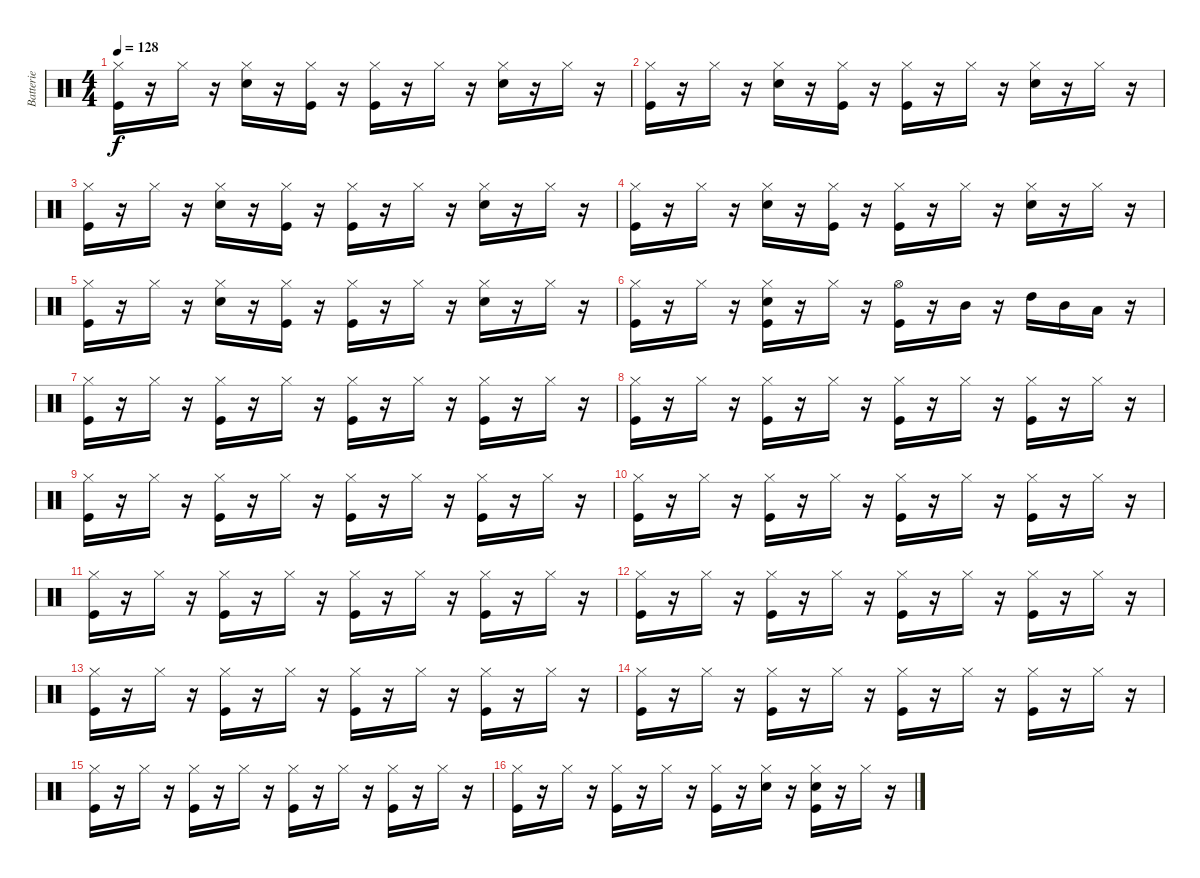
\track ("Batterie" "Batterie") {instrument percussion}
\staff {score}
\articulation defaults
\ts (4 4)
\tempo 128
\clef neutral
\ks c
("Kick (hit)" "Hi-Hat (closed)").16{dy f} r.16 "Hi-Hat (closed)".16 r.16 ("Snare (hit) 2" "Hi-Hat (closed)").16 r.16 ("Kick (hit)" "Hi-Hat (closed)").16 r.16 ("Kick (hit)" "Hi-Hat (closed)").16 r.16 "Hi-Hat (closed)".16 r.16 ("Snare (hit) 2" "Hi-Hat (closed)").16 r.16 "Hi-Hat (closed)".16 r.16 |
("Kick (hit)" "Hi-Hat (closed)").16 r.16 "Hi-Hat (closed)".16 r.16 ("Snare (hit) 2" "Hi-Hat (closed)").16 r.16 ("Kick (hit)" "Hi-Hat (closed)").16 r.16 ("Kick (hit)" "Hi-Hat (closed)").16 r.16 "Hi-Hat (closed)".16 r.16 ("Snare (hit) 2" "Hi-Hat (closed)").16 r.16 "Hi-Hat (closed)".16 r.16 |
("Kick (hit)" "Hi-Hat (closed)").16 r.16 "Hi-Hat (closed)".16 r.16 ("Snare (hit) 2" "Hi-Hat (closed)").16 r.16 ("Kick (hit)" "Hi-Hat (closed)").16 r.16 ("Kick (hit)" "Hi-Hat (closed)").16 r.16 "Hi-Hat (closed)".16 r.16 ("Snare (hit) 2" "Hi-Hat (closed)").16 r.16 "Hi-Hat (closed)".16 r.16 |
("Kick (hit)" "Hi-Hat (closed)").16 r.16 "Hi-Hat (closed)".16 r.16 ("Snare (hit) 2" "Hi-Hat (closed)").16 r.16 ("Kick (hit)" "Hi-Hat (closed)").16 r.16 ("Kick (hit)" "Hi-Hat (closed)").16 r.16 "Hi-Hat (closed)".16 r.16 ("Snare (hit) 2" "Hi-Hat (closed)").16 r.16 "Hi-Hat (closed)".16 r.16 |
("Kick (hit)" "Hi-Hat (closed)").16 r.16 "Hi-Hat (closed)".16 r.16 ("Snare (hit) 2" "Hi-Hat (closed)").16 r.16 ("Kick (hit)" "Hi-Hat (closed)").16 r.16 ("Kick (hit)" "Hi-Hat (closed)").16 r.16 "Hi-Hat (closed)".16 r.16 ("Snare (hit) 2" "Hi-Hat (closed)").16 r.16 "Hi-Hat (closed)".16 r.16 |
("Kick (hit)" "Hi-Hat (closed)").16 r.16 "Hi-Hat (closed)".16 r.16 ("Snare (hit) 2" "Kick (hit)" "Hi-Hat (closed)").16 r.16 "Hi-Hat (closed)".16 r.16 ("Kick (hit)" "Hi-Hat (open)").16 r.16 "Mid Tom (hit)".16 r.16 "High Tom (hit)".16 "Mid Tom (hit)".16 "Low Tom (hit)".16 r.16 |
("Kick (hit)" "Hi-Hat (closed)").16 r.16 "Hi-Hat (closed)".16 r.16 ("Kick (hit)" "Hi-Hat (closed)").16 r.16 "Hi-Hat (closed)".16 r.16 ("Kick (hit)" "Hi-Hat (closed)").16 r.16 "Hi-Hat (closed)".16 r.16 ("Kick (hit)" "Hi-Hat (closed)").16 r.16 "Hi-Hat (closed)".16 r.16 |
("Kick (hit)" "Hi-Hat (closed)").16 r.16 "Hi-Hat (closed)".16 r.16 ("Kick (hit)" "Hi-Hat (closed)").16 r.16 "Hi-Hat (closed)".16 r.16 ("Kick (hit)" "Hi-Hat (closed)").16 r.16 "Hi-Hat (closed)".16 r.16 ("Kick (hit)" "Hi-Hat (closed)").16 r.16 "Hi-Hat (closed)".16 r.16 |
("Kick (hit)" "Hi-Hat (closed)").16 r.16 "Hi-Hat (closed)".16 r.16 ("Kick (hit)" "Hi-Hat (closed)").16 r.16 "Hi-Hat (closed)".16 r.16 ("Kick (hit)" "Hi-Hat (closed)").16 r.16 "Hi-Hat (closed)".16 r.16 ("Kick (hit)" "Hi-Hat (closed)").16 r.16 "Hi-Hat (closed)".16 r.16 |
("Kick (hit)" "Hi-Hat (closed)").16 r.16 "Hi-Hat (closed)".16 r.16 ("Kick (hit)" "Hi-Hat (closed)").16 r.16 "Hi-Hat (closed)".16 r.16 ("Kick (hit)" "Hi-Hat (closed)").16 r.16 "Hi-Hat (closed)".16 r.16 ("Kick (hit)" "Hi-Hat (closed)").16 r.16 "Hi-Hat (closed)".16 r.16 |
("Kick (hit)" "Hi-Hat (closed)").16 r.16 "Hi-Hat (closed)".16 r.16 ("Kick (hit)" "Hi-Hat (closed)").16 r.16 "Hi-Hat (closed)".16 r.16 ("Kick (hit)" "Hi-Hat (closed)").16 r.16 "Hi-Hat (closed)".16 r.16 ("Kick (hit)" "Hi-Hat (closed)").16 r.16 "Hi-Hat (closed)".16 r.16 |
("Kick (hit)" "Hi-Hat (closed)").16 r.16 "Hi-Hat (closed)".16 r.16 ("Kick (hit)" "Hi-Hat (closed)").16 r.16 "Hi-Hat (closed)".16 r.16 ("Kick (hit)" "Hi-Hat (closed)").16 r.16 "Hi-Hat (closed)".16 r.16 ("Kick (hit)" "Hi-Hat (closed)").16 r.16 "Hi-Hat (closed)".16 r.16 |
("Kick (hit)" "Hi-Hat (closed)").16 r.16 "Hi-Hat (closed)".16 r.16 ("Kick (hit)" "Hi-Hat (closed)").16 r.16 "Hi-Hat (closed)".16 r.16 ("Kick (hit)" "Hi-Hat (closed)").16 r.16 "Hi-Hat (closed)".16 r.16 ("Kick (hit)" "Hi-Hat (closed)").16 r.16 "Hi-Hat (closed)".16 r.16 |
("Kick (hit)" "Hi-Hat (closed)").16 r.16 "Hi-Hat (closed)".16 r.16 ("Kick (hit)" "Hi-Hat (closed)").16 r.16 "Hi-Hat (closed)".16 r.16 ("Kick (hit)" "Hi-Hat (closed)").16 r.16 "Hi-Hat (closed)".16 r.16 ("Kick (hit)" "Hi-Hat (closed)").16 r.16 "Hi-Hat (closed)".16 r.16 |
("Kick (hit)" "Hi-Hat (closed)").16 r.16 "Hi-Hat (closed)".16 r.16 ("Kick (hit)" "Hi-Hat (closed)").16 r.16 "Hi-Hat (closed)".16 r.16 ("Kick (hit)" "Hi-Hat (closed)").16 r.16 "Hi-Hat (closed)".16 r.16 ("Kick (hit)" "Hi-Hat (closed)").16 r.16 "Hi-Hat (closed)".16 r.16 |
("Kick (hit)" "Hi-Hat (closed)").16 r.16 "Hi-Hat (closed)".16 r.16 ("Kick (hit)" "Hi-Hat (closed)").16 r.16 "Hi-Hat (closed)".16 r.16 ("Kick (hit)" "Hi-Hat (closed)").16 r.16 ("Snare (hit) 2" "Hi-Hat (closed)").16 r.16 ("Snare (hit) 2" "Kick (hit)" "Hi-Hat (closed)").16 r.16 "Hi-Hat (closed)".16 r.16
